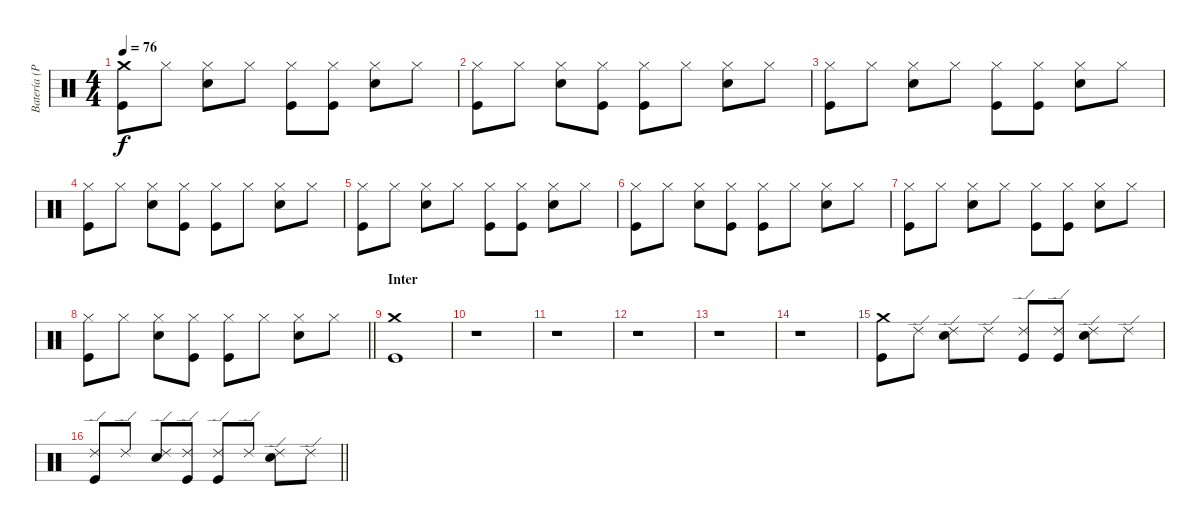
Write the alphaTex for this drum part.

\track ("Batería (Phill Selway)" "Batería (P") {instrument percussion}
\staff {score}
\articulation defaults
\ts (4 4)
\tempo 76
\clef neutral
\ks c
("Crash medium (hit)" "Kick (hit)").8{dy f} "Hi-Hat (closed)".8 ("Hi-Hat (closed)" "Snare (hit) 2").8 "Hi-Hat (closed)".8 ("Hi-Hat (closed)" "Kick (hit)").8 ("Hi-Hat (closed)" "Kick (hit)").8 ("Hi-Hat (closed)" "Snare (hit) 2").8 "Hi-Hat (closed)".8 |
("Hi-Hat (closed)" "Kick (hit)").8 "Hi-Hat (closed)".8 ("Hi-Hat (closed)" "Snare (hit) 2").8 ("Hi-Hat (closed)" "Kick (hit)").8 ("Hi-Hat (closed)" "Kick (hit)").8 "Hi-Hat (closed)".8 ("Hi-Hat (closed)" "Snare (hit) 2").8 "Hi-Hat (closed)".8 |
("Hi-Hat (closed)" "Kick (hit)").8 "Hi-Hat (closed)".8 ("Hi-Hat (closed)" "Snare (hit) 2").8 "Hi-Hat (closed)".8 ("Hi-Hat (closed)" "Kick (hit)").8 ("Hi-Hat (closed)" "Kick (hit)").8 ("Hi-Hat (closed)" "Snare (hit) 2").8 "Hi-Hat (closed)".8 |
("Hi-Hat (closed)" "Kick (hit)").8 "Hi-Hat (closed)".8 ("Hi-Hat (closed)" "Snare (hit) 2").8 ("Hi-Hat (closed)" "Kick (hit)").8 ("Hi-Hat (closed)" "Kick (hit)").8 "Hi-Hat (closed)".8 ("Hi-Hat (closed)" "Snare (hit) 2").8 "Hi-Hat (closed)".8 |
("Hi-Hat (closed)" "Kick (hit)").8 "Hi-Hat (closed)".8 ("Hi-Hat (closed)" "Snare (hit) 2").8 "Hi-Hat (closed)".8 ("Hi-Hat (closed)" "Kick (hit)").8 ("Hi-Hat (closed)" "Kick (hit)").8 ("Hi-Hat (closed)" "Snare (hit) 2").8 "Hi-Hat (closed)".8 |
("Hi-Hat (closed)" "Kick (hit)").8 "Hi-Hat (closed)".8 ("Hi-Hat (closed)" "Snare (hit) 2").8 ("Hi-Hat (closed)" "Kick (hit)").8 ("Hi-Hat (closed)" "Kick (hit)").8 "Hi-Hat (closed)".8 ("Hi-Hat (closed)" "Snare (hit) 2").8 "Hi-Hat (closed)".8 |
("Hi-Hat (closed)" "Kick (hit)").8 "Hi-Hat (closed)".8 ("Hi-Hat (closed)" "Snare (hit) 2").8 "Hi-Hat (closed)".8 ("Hi-Hat (closed)" "Kick (hit)").8 ("Hi-Hat (closed)" "Kick (hit)").8 ("Hi-Hat (closed)" "Snare (hit) 2").8 "Hi-Hat (closed)".8 |
\barLineRight lightlight
("Hi-Hat (closed)" "Kick (hit)").8 "Hi-Hat (closed)".8 ("Hi-Hat (closed)" "Snare (hit) 2").8 ("Hi-Hat (closed)" "Kick (hit)").8 ("Hi-Hat (closed)" "Kick (hit)").8 "Hi-Hat (closed)".8 ("Hi-Hat (closed)" "Snare (hit) 2").8 "Hi-Hat (closed)".8 |
\section ("" "Inter ")
("Crash medium (hit)" "Kick (hit)").1 |
r.1 |
r.1 |
r.1 |
r.1 |
r.1 |
("Crash medium (hit)" "Kick (hit)").8 "Ride (edge) 2".8 ("Ride (edge) 2" "Snare (hit) 2").8 "Ride (edge) 2".8 ("Ride (edge) 2" "Kick (hit)").8 ("Ride (edge) 2" "Kick (hit)").8 ("Ride (edge) 2" "Snare (hit) 2").8 "Ride (edge) 2".8 |
\barLineRight lightlight
("Ride (edge) 2" "Kick (hit)").8 "Ride (edge) 2".8 ("Ride (edge) 2" "Snare (hit) 2").8 ("Ride (edge) 2" "Kick (hit)").8 ("Ride (edge) 2" "Kick (hit)").8 "Ride (edge) 2".8 ("Ride (edge) 2" "Snare (hit) 2").8 "Ride (edge) 2".8
